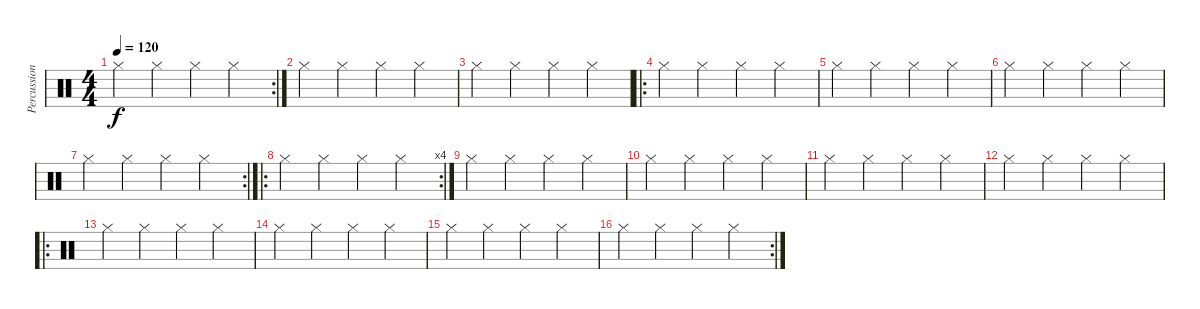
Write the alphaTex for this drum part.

\track ("Percussioni" "Percussion") {instrument percussion}
\staff {score}
\articulation defaults
\rc 2
\ts (4 4)
\tempo 120
\clef neutral
\ks c "Hi-Hat (closed)".4{dy f} "Hi-Hat (closed)".4 "Hi-Hat (closed)".4 "Hi-Hat (closed)".4
|
"Hi-Hat (closed)".4 "Hi-Hat (closed)".4 "Hi-Hat (closed)".4 "Hi-Hat (closed)".4 |
"Hi-Hat (closed)".4 "Hi-Hat (closed)".4 "Hi-Hat (closed)".4 "Hi-Hat (closed)".4 |
\ro "Hi-Hat (closed)".4 "Hi-Hat (closed)".4 "Hi-Hat (closed)".4 "Hi-Hat (closed)".4
|
"Hi-Hat (closed)".4 "Hi-Hat (closed)".4 "Hi-Hat (closed)".4 "Hi-Hat (closed)".4 |
"Hi-Hat (closed)".4 "Hi-Hat (closed)".4 "Hi-Hat (closed)".4 "Hi-Hat (closed)".4 |
\rc 2 "Hi-Hat (closed)".4 "Hi-Hat (closed)".4 "Hi-Hat (closed)".4 "Hi-Hat (closed)".4
|
\ro
\rc 4 "Hi-Hat (closed)".4 "Hi-Hat (closed)".4 "Hi-Hat (closed)".4 "Hi-Hat (closed)".4
|
"Hi-Hat (closed)".4 "Hi-Hat (closed)".4 "Hi-Hat (closed)".4 "Hi-Hat (closed)".4 |
"Hi-Hat (closed)".4 "Hi-Hat (closed)".4 "Hi-Hat (closed)".4 "Hi-Hat (closed)".4 |
"Hi-Hat (closed)".4 "Hi-Hat (closed)".4 "Hi-Hat (closed)".4 "Hi-Hat (closed)".4 |
"Hi-Hat (closed)".4 "Hi-Hat (closed)".4 "Hi-Hat (closed)".4 "Hi-Hat (closed)".4 |
\ro "Hi-Hat (closed)".4 "Hi-Hat (closed)".4 "Hi-Hat (closed)".4 "Hi-Hat (closed)".4
|
"Hi-Hat (closed)".4 "Hi-Hat (closed)".4 "Hi-Hat (closed)".4 "Hi-Hat (closed)".4 |
"Hi-Hat (closed)".4 "Hi-Hat (closed)".4 "Hi-Hat (closed)".4 "Hi-Hat (closed)".4 |
\rc 2 "Hi-Hat (closed)".4 "Hi-Hat (closed)".4 "Hi-Hat (closed)".4 "Hi-Hat (closed)".4
